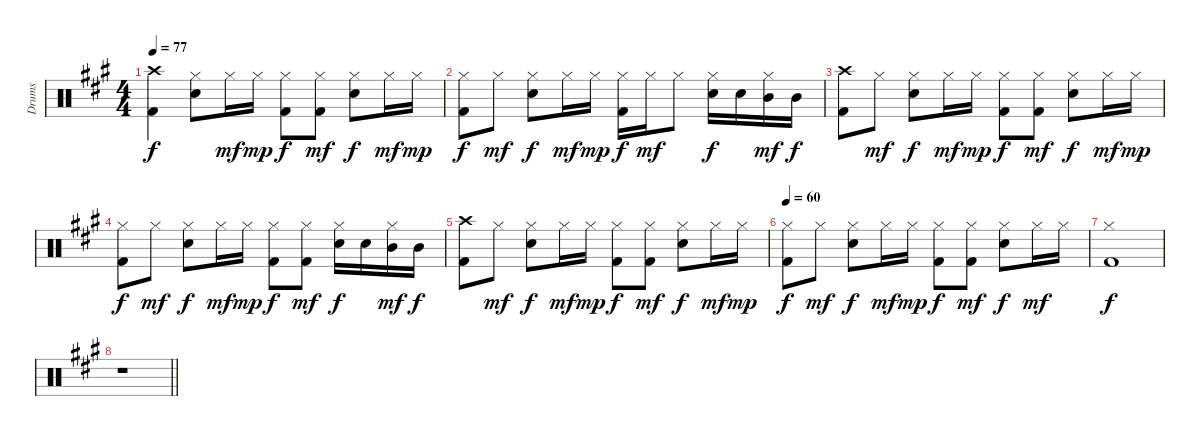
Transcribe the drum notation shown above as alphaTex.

\track ("Drums" "Drums") {instrument percussion}
\staff {score}
\articulation defaults
\ts (4 4)
\tempo 77
\clef neutral
\ks a
("Crash high (hit)" "Kick (hit) 2").4{dy f} ("Hi-Hat (closed)" "Electric Snare (hit)").8 "Hi-Hat (closed)".16{dy mf} "Hi-Hat (closed)".16{dy mp} ("Hi-Hat (closed)" "Kick (hit) 2").8{dy f} ("Hi-Hat (closed)" "Kick (hit) 2").8{dy mf} ("Hi-Hat (closed)" "Electric Snare (hit)").8{dy f} "Hi-Hat (closed)".16{dy mf} "Hi-Hat (closed)".16{dy mp} |
("Hi-Hat (closed)" "Kick (hit) 2").8{dy f} "Hi-Hat (closed)".8{dy mf} ("Hi-Hat (closed)" "Electric Snare (hit)").8{dy f} "Hi-Hat (closed)".16{dy mf} "Hi-Hat (closed)".16{dy mp} ("Hi-Hat (closed)" "Kick (hit) 2").16{dy f} "Hi-Hat (closed)".16{dy mf} "Hi-Hat (closed)".8 ("Hi-Hat (closed)" "Electric Snare (hit)").16{dy f} "Electric Snare (hit)".16 ("Hi-Hat (closed)" "Mid Tom (hit)").16{dy mf} "Mid Tom (hit)".16{dy f} |
("Crash high (hit)" "Kick (hit) 2").8 "Hi-Hat (closed)".8{dy mf} ("Hi-Hat (closed)" "Electric Snare (hit)").8{dy f} "Hi-Hat (closed)".16{dy mf} "Hi-Hat (closed)".16{dy mp} ("Hi-Hat (closed)" "Kick (hit) 2").8{dy f} ("Hi-Hat (closed)" "Kick (hit) 2").8{dy mf} ("Hi-Hat (closed)" "Electric Snare (hit)").8{dy f} "Hi-Hat (closed)".16{dy mf} "Hi-Hat (closed)".16{dy mp} |
("Hi-Hat (closed)" "Kick (hit) 2").8{dy f} "Hi-Hat (closed)".8{dy mf} ("Hi-Hat (closed)" "Electric Snare (hit)").8{dy f} "Hi-Hat (closed)".16{dy mf} "Hi-Hat (closed)".16{dy mp} ("Hi-Hat (closed)" "Kick (hit) 2").8{dy f} ("Hi-Hat (closed)" "Kick (hit) 2").8{dy mf} ("Hi-Hat (closed)" "Electric Snare (hit)").16{dy f} "Electric Snare (hit)".16 ("Hi-Hat (closed)" "Mid Tom (hit)").16{dy mf} "Mid Tom (hit)".16{dy f} |
("Crash high (hit)" "Kick (hit) 2").8 "Hi-Hat (closed)".8{dy mf} ("Hi-Hat (closed)" "Electric Snare (hit)").8{dy f} "Hi-Hat (closed)".16{dy mf} "Hi-Hat (closed)".16{dy mp} ("Hi-Hat (closed)" "Kick (hit) 2").8{dy f} ("Hi-Hat (closed)" "Kick (hit) 2").8{dy mf} ("Hi-Hat (closed)" "Electric Snare (hit)").8{dy f} "Hi-Hat (closed)".16{dy mf} "Hi-Hat (closed)".16{dy mp} |
\tempo 60
("Hi-Hat (closed)" "Kick (hit) 2").8{dy f} "Hi-Hat (closed)".8{dy mf} ("Hi-Hat (closed)" "Electric Snare (hit)").8{dy f} "Hi-Hat (closed)".16{dy mf} "Hi-Hat (closed)".16{dy mp} ("Hi-Hat (closed)" "Kick (hit) 2").8{dy f} ("Hi-Hat (closed)" "Kick (hit) 2").8{dy mf} ("Hi-Hat (closed)" "Electric Snare (hit)").8{dy f} "Hi-Hat (closed)".16{dy mf} "Hi-Hat (closed)".16 |
("Hi-Hat (closed)" "Kick (hit) 2").1{dy f} |
\barLineRight lightlight
r.1
